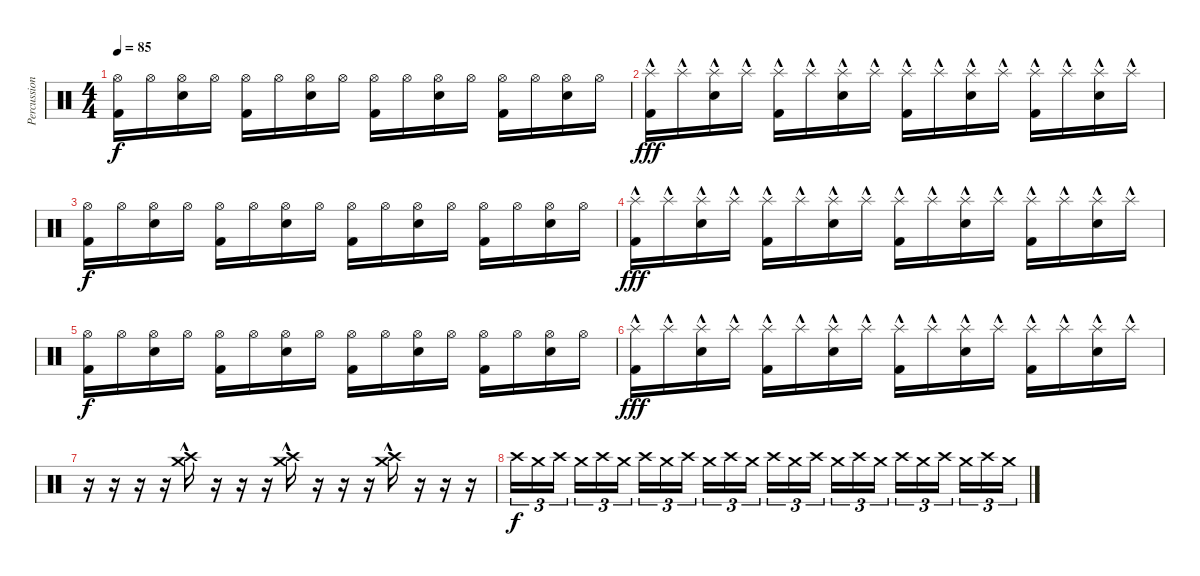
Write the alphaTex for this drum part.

\track ("Percussion" "Percussion") {instrument percussion}
\staff {score}
\articulation defaults
\ts (4 4)
\tempo 85
\clef neutral
\ks c
("Hi-Hat (open)" "Kick (hit) 2").16{dy f} "Hi-Hat (open)".16 ("Hi-Hat (open)" "Electric Snare (hit)").16 "Hi-Hat (open)".16 ("Hi-Hat (open)" "Kick (hit) 2").16 "Hi-Hat (open)".16 ("Hi-Hat (open)" "Electric Snare (hit)").16 "Hi-Hat (open)".16 ("Hi-Hat (open)" "Kick (hit) 2").16 "Hi-Hat (open)".16 ("Hi-Hat (open)" "Electric Snare (hit)").16 "Hi-Hat (open)".16 ("Hi-Hat (open)" "Kick (hit) 2").16 "Hi-Hat (open)".16 ("Hi-Hat (open)" "Electric Snare (hit)").16 "Hi-Hat (open)".16 |
("Splash (hit)"{hac} "Kick (hit) 2").16{dy fff} "Splash (hit)"{hac}.16 ("Splash (hit)"{hac} "Electric Snare (hit)").16 "Splash (hit)"{hac}.16 ("Splash (hit)"{hac} "Kick (hit) 2").16 "Splash (hit)"{hac}.16 ("Splash (hit)"{hac} "Electric Snare (hit)").16 "Splash (hit)"{hac}.16 ("Splash (hit)"{hac} "Kick (hit) 2").16 "Splash (hit)"{hac}.16 ("Splash (hit)"{hac} "Electric Snare (hit)").16 "Splash (hit)"{hac}.16 ("Splash (hit)"{hac} "Kick (hit) 2").16 "Splash (hit)"{hac}.16 ("Splash (hit)"{hac} "Electric Snare (hit)").16 "Splash (hit)"{hac}.16 |
("Hi-Hat (open)" "Kick (hit) 2").16{dy f} "Hi-Hat (open)".16 ("Hi-Hat (open)" "Electric Snare (hit)").16 "Hi-Hat (open)".16 ("Hi-Hat (open)" "Kick (hit) 2").16 "Hi-Hat (open)".16 ("Hi-Hat (open)" "Electric Snare (hit)").16 "Hi-Hat (open)".16 ("Hi-Hat (open)" "Kick (hit) 2").16 "Hi-Hat (open)".16 ("Hi-Hat (open)" "Electric Snare (hit)").16 "Hi-Hat (open)".16 ("Hi-Hat (open)" "Kick (hit) 2").16 "Hi-Hat (open)".16 ("Hi-Hat (open)" "Electric Snare (hit)").16 "Hi-Hat (open)".16 |
("Splash (hit)"{hac} "Kick (hit) 2").16{dy fff} "Splash (hit)"{hac}.16 ("Splash (hit)"{hac} "Electric Snare (hit)").16 "Splash (hit)"{hac}.16 ("Splash (hit)"{hac} "Kick (hit) 2").16 "Splash (hit)"{hac}.16 ("Splash (hit)"{hac} "Electric Snare (hit)").16 "Splash (hit)"{hac}.16 ("Splash (hit)"{hac} "Kick (hit) 2").16 "Splash (hit)"{hac}.16 ("Splash (hit)"{hac} "Electric Snare (hit)").16 "Splash (hit)"{hac}.16 ("Splash (hit)"{hac} "Kick (hit) 2").16 "Splash (hit)"{hac}.16 ("Splash (hit)"{hac} "Electric Snare (hit)").16 "Splash (hit)"{hac}.16 |
("Hi-Hat (open)" "Kick (hit) 2").16{dy f} "Hi-Hat (open)".16 ("Hi-Hat (open)" "Electric Snare (hit)").16 "Hi-Hat (open)".16 ("Hi-Hat (open)" "Kick (hit) 2").16 "Hi-Hat (open)".16 ("Hi-Hat (open)" "Electric Snare (hit)").16 "Hi-Hat (open)".16 ("Hi-Hat (open)" "Kick (hit) 2").16 "Hi-Hat (open)".16 ("Hi-Hat (open)" "Electric Snare (hit)").16 "Hi-Hat (open)".16 ("Hi-Hat (open)" "Kick (hit) 2").16 "Hi-Hat (open)".16 ("Hi-Hat (open)" "Electric Snare (hit)").16 "Hi-Hat (open)".16 |
("Splash (hit)"{hac} "Kick (hit) 2").16{dy fff} "Splash (hit)"{hac}.16 ("Splash (hit)"{hac} "Electric Snare (hit)").16 "Splash (hit)"{hac}.16 ("Splash (hit)"{hac} "Kick (hit) 2").16 "Splash (hit)"{hac}.16 ("Splash (hit)"{hac} "Electric Snare (hit)").16 "Splash (hit)"{hac}.16 ("Splash (hit)"{hac} "Kick (hit) 2").16 "Splash (hit)"{hac}.16 ("Splash (hit)"{hac} "Electric Snare (hit)").16 "Splash (hit)"{hac}.16 ("Splash (hit)"{hac} "Kick (hit) 2").16 "Splash (hit)"{hac}.16 ("Splash (hit)"{hac} "Electric Snare (hit)").16 "Splash (hit)"{hac}.16 |
r.16 r.16 r.16 r.16 ("Crash high (hit)"{hac} "Crash medium (hit)").16 r.16 r.16 r.16 ("Crash high (hit)"{hac} "Crash medium (hit)").16 r.16 r.16 r.16 ("Crash high (hit)"{hac} "Crash medium (hit)").16 r.16 r.16 r.16 |
"Crash high (hit)".16{tu (3 2) dy f volume 3} "Crash medium (hit)".16{tu (3 2)} "Crash high (hit)".16{tu (3 2) beam splitsecondary} "Crash medium (hit)".16{tu (3 2)} "Crash high (hit)".16{tu (3 2)} "Crash medium (hit)".16{tu (3 2)} "Crash high (hit)".16{tu (3 2)} "Crash medium (hit)".16{tu (3 2)} "Crash high (hit)".16{tu (3 2) beam splitsecondary} "Crash medium (hit)".16{tu (3 2)} "Crash high (hit)".16{tu (3 2)} "Crash medium (hit)".16{tu (3 2)} "Crash high (hit)".16{tu (3 2)} "Crash medium (hit)".16{tu (3 2)} "Crash high (hit)".16{tu (3 2) beam splitsecondary} "Crash medium (hit)".16{tu (3 2)} "Crash high (hit)".16{tu (3 2)} "Crash medium (hit)".16{tu (3 2)} "Crash high (hit)".16{tu (3 2)} "Crash medium (hit)".16{tu (3 2)} "Crash high (hit)".16{tu (3 2) beam splitsecondary} "Crash medium (hit)".16{tu (3 2)} "Crash high (hit)".16{tu (3 2)} "Crash medium (hit)".16{tu (3 2)}
